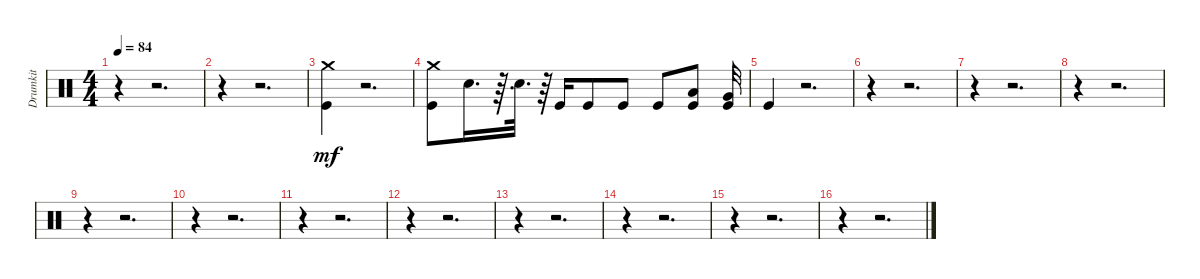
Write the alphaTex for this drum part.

\track ("Drumkit" "Drumkit") {instrument percussion}
\staff {score}
\articulation defaults
\ts (4 4)
\tempo 84
\clef neutral
\ks c
r.4{dy mf} r.2{d} |
r.4 r.2{d} |
("Kick (hit)" "Crash medium (hit)").4 r.2{d} |
("Kick (hit)" "Crash medium (hit)").8 "Snare (hit) 2".16{d} r.64{d} "Snare (hit) 2".32{d} r.64 "Kick (hit)".16 "Kick (hit)".8 "Kick (hit)".8 "Kick (hit)".8 ("Kick (hit)" "Low Floor Tom (hit)").8 ("Kick (hit)" "Very Low Tom (hit)").32 |
"Kick (hit)".4 r.2{d} |
r.4 r.2{d} |
r.4 r.2{d} |
r.4 r.2{d} |
r.4 r.2{d} |
r.4 r.2{d} |
r.4 r.2{d} |
r.4 r.2{d} |
r.4 r.2{d} |
r.4 r.2{d} |
r.4 r.2{d} |
r.4 r.2{d}
